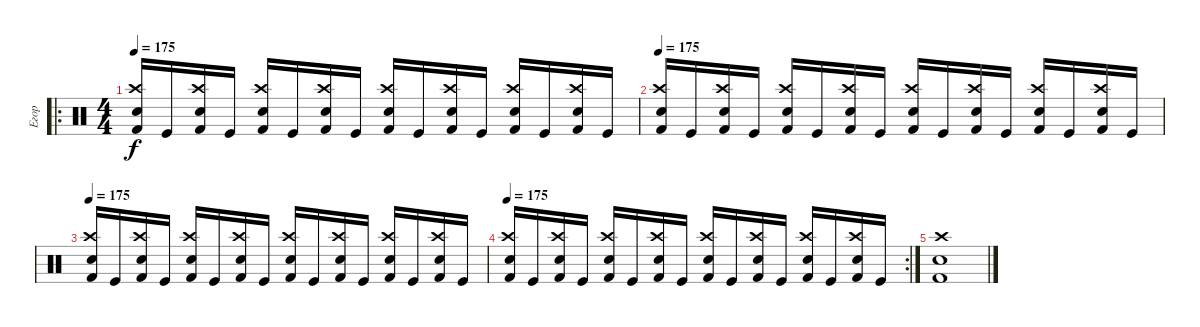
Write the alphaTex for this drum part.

\track ("Егор" "Егор") {instrument percussion}
\staff {score}
\articulation defaults
\ro
\ts (4 4)
\tempo 175
\clef neutral
\ks c
("Snare (hit) 2" "Crash high (hit)" "Kick (hit) 2").16{dy f} "Kick (hit)".16 ("Snare (hit) 2" "Crash high (hit)" "Kick (hit) 2").16 "Kick (hit)".16 ("Snare (hit) 2" "Crash high (hit)" "Kick (hit) 2").16 "Kick (hit)".16 ("Snare (hit) 2" "Crash high (hit)" "Kick (hit) 2").16 "Kick (hit)".16 ("Snare (hit) 2" "Crash high (hit)" "Kick (hit) 2").16 "Kick (hit)".16 ("Snare (hit) 2" "Crash high (hit)" "Kick (hit) 2").16 "Kick (hit)".16 ("Snare (hit) 2" "Crash high (hit)" "Kick (hit) 2").16 "Kick (hit)".16 ("Snare (hit) 2" "Crash high (hit)" "Kick (hit) 2").16 "Kick (hit)".16 |
\tempo 175
("Snare (hit) 2" "Crash high (hit)" "Kick (hit) 2").16 "Kick (hit)".16 ("Snare (hit) 2" "Crash high (hit)" "Kick (hit) 2").16 "Kick (hit)".16 ("Snare (hit) 2" "Crash high (hit)" "Kick (hit) 2").16 "Kick (hit)".16 ("Snare (hit) 2" "Crash high (hit)" "Kick (hit) 2").16 "Kick (hit)".16 ("Snare (hit) 2" "Crash high (hit)" "Kick (hit) 2").16 "Kick (hit)".16 ("Snare (hit) 2" "Crash high (hit)" "Kick (hit) 2").16 "Kick (hit)".16 ("Snare (hit) 2" "Crash high (hit)" "Kick (hit) 2").16 "Kick (hit)".16 ("Snare (hit) 2" "Crash high (hit)" "Kick (hit) 2").16 "Kick (hit)".16 |
\tempo 175
("Snare (hit) 2" "Crash high (hit)" "Kick (hit) 2").16 "Kick (hit)".16 ("Snare (hit) 2" "Crash high (hit)" "Kick (hit) 2").16 "Kick (hit)".16 ("Snare (hit) 2" "Crash high (hit)" "Kick (hit) 2").16 "Kick (hit)".16 ("Snare (hit) 2" "Crash high (hit)" "Kick (hit) 2").16 "Kick (hit)".16 ("Snare (hit) 2" "Crash high (hit)" "Kick (hit) 2").16 "Kick (hit)".16 ("Snare (hit) 2" "Crash high (hit)" "Kick (hit) 2").16 "Kick (hit)".16 ("Snare (hit) 2" "Crash high (hit)" "Kick (hit) 2").16 "Kick (hit)".16 ("Snare (hit) 2" "Crash high (hit)" "Kick (hit) 2").16 "Kick (hit)".16 |
\rc 2
\tempo 175
("Snare (hit) 2" "Crash high (hit)" "Kick (hit) 2").16 "Kick (hit)".16 ("Snare (hit) 2" "Crash high (hit)" "Kick (hit) 2").16 "Kick (hit)".16 ("Snare (hit) 2" "Crash high (hit)" "Kick (hit) 2").16 "Kick (hit)".16 ("Snare (hit) 2" "Crash high (hit)" "Kick (hit) 2").16 "Kick (hit)".16 ("Snare (hit) 2" "Crash high (hit)" "Kick (hit) 2").16 "Kick (hit)".16 ("Snare (hit) 2" "Crash high (hit)" "Kick (hit) 2").16 "Kick (hit)".16 ("Snare (hit) 2" "Crash high (hit)" "Kick (hit) 2").16 "Kick (hit)".16 ("Snare (hit) 2" "Crash high (hit)" "Kick (hit) 2").16 "Kick (hit)".16 |
("Crash high (hit)" "Snare (hit) 2" "Kick (hit) 2").1
